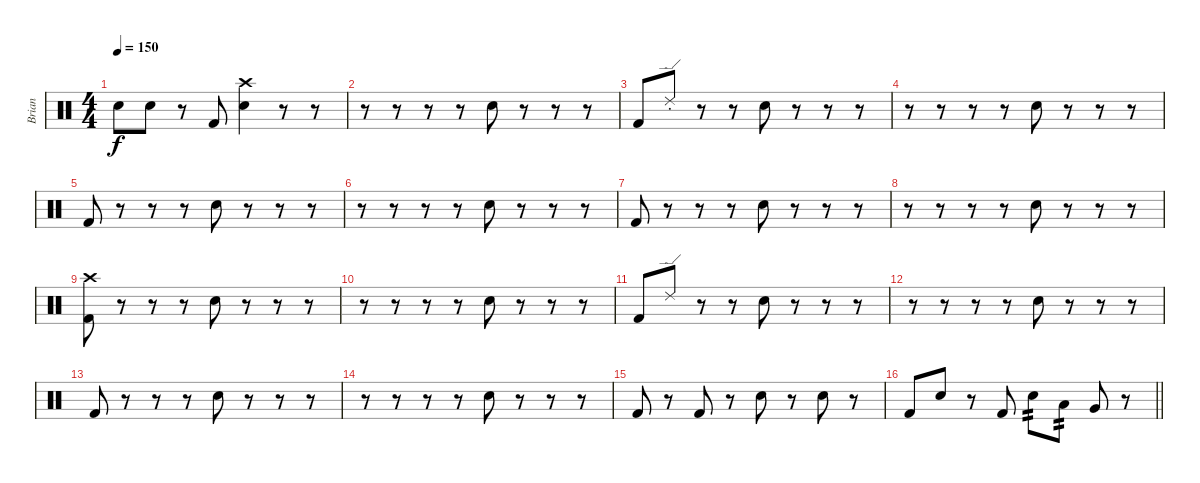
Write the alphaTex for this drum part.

\track ("Brian" "Brian") {instrument percussion}
\staff {score}
\articulation defaults
\ts (4 4)
\tempo 150
\clef neutral
\ks c "Snare (hit) 2".8{dy f} "Snare (hit) 2".8
r.8 "Kick (hit) 2".8 ("Crash high (hit)" "Snare (hit) 2").4 r.8 r.8 |
r.8 r.8 r.8 r.8 "Snare (hit) 2".8 r.8 r.8 r.8 |
"Kick (hit) 2".8 "Ride (edge) 2"{st}.8 r.8 r.8 "Snare (hit) 2".8 r.8 r.8 r.8 |
r.8 r.8 r.8 r.8 "Snare (hit) 2".8 r.8 r.8 r.8 |
"Kick (hit) 2".8 r.8 r.8 r.8 "Snare (hit) 2".8 r.8 r.8 r.8 |
r.8 r.8 r.8 r.8 "Snare (hit) 2".8 r.8 r.8 r.8 |
"Kick (hit) 2".8 r.8 r.8 r.8 "Snare (hit) 2".8 r.8 r.8 r.8 |
r.8 r.8 r.8 r.8 "Snare (hit) 2".8 r.8 r.8 r.8 |
("Crash high (hit)" "Kick (hit) 2").8 r.8 r.8 r.8 "Snare (hit) 2".8 r.8 r.8 r.8 |
r.8 r.8 r.8 r.8 "Snare (hit) 2".8 r.8 r.8 r.8 |
"Kick (hit) 2".8 "Ride (edge) 2".8 r.8 r.8 "Snare (hit) 2".8 r.8 r.8 r.8 |
r.8 r.8 r.8 r.8 "Snare (hit) 2".8 r.8 r.8 r.8 |
"Kick (hit) 2".8 r.8 r.8 r.8 "Snare (hit) 2".8 r.8 r.8 r.8 |
r.8 r.8 r.8 r.8 "Snare (hit) 2".8 r.8 r.8 r.8 |
"Kick (hit) 2".8 r.8 "Kick (hit) 2".8 r.8 "Snare (hit) 2".8 r.8 "Snare (hit) 2".8 r.8 |
\barLineRight lightlight "Kick (hit) 2".8 "Snare (hit) 2".8
r.8 "Kick (hit) 2".8 "Snare (hit) 2".8{tp 2} "Low Tom (hit)".8{tp 2} "Very Low Tom (hit)".8 r.8
